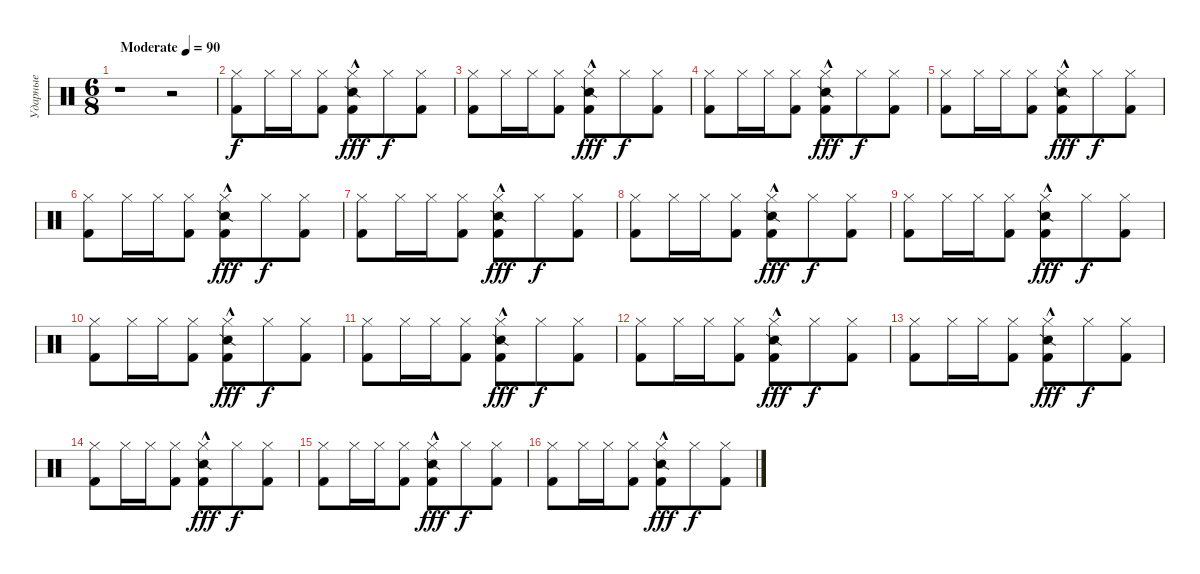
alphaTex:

\track ("Ударные" "Ударные") {instrument percussion}
\staff {score}
\articulation defaults
\ts (6 8)
\tempo (90 "Moderate")
\clef neutral
\ks aminor
r.1{dy f} r.2 |
("Hi-Hat (closed)" "Kick (hit) 2").8 "Hi-Hat (closed)".16 "Hi-Hat (closed)".16 ("Hi-Hat (closed)" "Kick (hit) 2").8 ("Hi-Hat (closed)" "Snare (side stick) 2"{hac} "Kick (hit) 2").8{dy fff} "Hi-Hat (closed)".8{dy f} ("Hi-Hat (closed)" "Kick (hit) 2").8 |
("Hi-Hat (closed)" "Kick (hit) 2").8 "Hi-Hat (closed)".16 "Hi-Hat (closed)".16 ("Hi-Hat (closed)" "Kick (hit) 2").8 ("Hi-Hat (closed)" "Snare (side stick) 2"{hac} "Kick (hit) 2").8{dy fff} "Hi-Hat (closed)".8{dy f} ("Hi-Hat (closed)" "Kick (hit) 2").8 |
("Hi-Hat (closed)" "Kick (hit) 2").8 "Hi-Hat (closed)".16 "Hi-Hat (closed)".16 ("Hi-Hat (closed)" "Kick (hit) 2").8 ("Hi-Hat (closed)" "Snare (side stick) 2"{hac} "Kick (hit) 2").8{dy fff} "Hi-Hat (closed)".8{dy f} ("Hi-Hat (closed)" "Kick (hit) 2").8 |
("Hi-Hat (closed)" "Kick (hit) 2").8 "Hi-Hat (closed)".16 "Hi-Hat (closed)".16 ("Hi-Hat (closed)" "Kick (hit) 2").8 ("Hi-Hat (closed)" "Snare (side stick) 2"{hac} "Kick (hit) 2").8{dy fff} "Hi-Hat (closed)".8{dy f} ("Hi-Hat (closed)" "Kick (hit) 2").8 |
("Hi-Hat (closed)" "Kick (hit) 2").8 "Hi-Hat (closed)".16 "Hi-Hat (closed)".16 ("Hi-Hat (closed)" "Kick (hit) 2").8 ("Hi-Hat (closed)" "Snare (side stick) 2"{hac} "Kick (hit) 2").8{dy fff} "Hi-Hat (closed)".8{dy f} ("Hi-Hat (closed)" "Kick (hit) 2").8 |
("Hi-Hat (closed)" "Kick (hit) 2").8 "Hi-Hat (closed)".16 "Hi-Hat (closed)".16 ("Hi-Hat (closed)" "Kick (hit) 2").8 ("Hi-Hat (closed)" "Snare (side stick) 2"{hac} "Kick (hit) 2").8{dy fff} "Hi-Hat (closed)".8{dy f} ("Hi-Hat (closed)" "Kick (hit) 2").8 |
("Hi-Hat (closed)" "Kick (hit) 2").8 "Hi-Hat (closed)".16 "Hi-Hat (closed)".16 ("Hi-Hat (closed)" "Kick (hit) 2").8 ("Hi-Hat (closed)" "Snare (side stick) 2"{hac} "Kick (hit) 2").8{dy fff} "Hi-Hat (closed)".8{dy f} ("Hi-Hat (closed)" "Kick (hit) 2").8 |
("Hi-Hat (closed)" "Kick (hit) 2").8 "Hi-Hat (closed)".16 "Hi-Hat (closed)".16 ("Hi-Hat (closed)" "Kick (hit) 2").8 ("Hi-Hat (closed)" "Snare (side stick) 2"{hac} "Kick (hit) 2").8{dy fff} "Hi-Hat (closed)".8{dy f} ("Hi-Hat (closed)" "Kick (hit) 2").8 |
("Hi-Hat (closed)" "Kick (hit) 2").8 "Hi-Hat (closed)".16 "Hi-Hat (closed)".16 ("Hi-Hat (closed)" "Kick (hit) 2").8 ("Hi-Hat (closed)" "Snare (side stick) 2"{hac} "Kick (hit) 2").8{dy fff} "Hi-Hat (closed)".8{dy f} ("Hi-Hat (closed)" "Kick (hit) 2").8 |
("Hi-Hat (closed)" "Kick (hit) 2").8 "Hi-Hat (closed)".16 "Hi-Hat (closed)".16 ("Hi-Hat (closed)" "Kick (hit) 2").8 ("Hi-Hat (closed)" "Snare (side stick) 2"{hac} "Kick (hit) 2").8{dy fff} "Hi-Hat (closed)".8{dy f} ("Hi-Hat (closed)" "Kick (hit) 2").8 |
("Hi-Hat (closed)" "Kick (hit) 2").8 "Hi-Hat (closed)".16 "Hi-Hat (closed)".16 ("Hi-Hat (closed)" "Kick (hit) 2").8 ("Hi-Hat (closed)" "Snare (side stick) 2"{hac} "Kick (hit) 2").8{dy fff} "Hi-Hat (closed)".8{dy f} ("Hi-Hat (closed)" "Kick (hit) 2").8 |
("Hi-Hat (closed)" "Kick (hit) 2").8 "Hi-Hat (closed)".16 "Hi-Hat (closed)".16 ("Hi-Hat (closed)" "Kick (hit) 2").8 ("Hi-Hat (closed)" "Snare (side stick) 2"{hac} "Kick (hit) 2").8{dy fff} "Hi-Hat (closed)".8{dy f} ("Hi-Hat (closed)" "Kick (hit) 2").8 |
("Hi-Hat (closed)" "Kick (hit) 2").8 "Hi-Hat (closed)".16 "Hi-Hat (closed)".16 ("Hi-Hat (closed)" "Kick (hit) 2").8 ("Hi-Hat (closed)" "Snare (side stick) 2"{hac} "Kick (hit) 2").8{dy fff} "Hi-Hat (closed)".8{dy f} ("Hi-Hat (closed)" "Kick (hit) 2").8 |
("Hi-Hat (closed)" "Kick (hit) 2").8 "Hi-Hat (closed)".16 "Hi-Hat (closed)".16 ("Hi-Hat (closed)" "Kick (hit) 2").8 ("Hi-Hat (closed)" "Snare (side stick) 2"{hac} "Kick (hit) 2").8{dy fff} "Hi-Hat (closed)".8{dy f} ("Hi-Hat (closed)" "Kick (hit) 2").8 |
("Hi-Hat (closed)" "Kick (hit) 2").8 "Hi-Hat (closed)".16 "Hi-Hat (closed)".16 ("Hi-Hat (closed)" "Kick (hit) 2").8 ("Hi-Hat (closed)" "Snare (side stick) 2"{hac} "Kick (hit) 2").8{dy fff} "Hi-Hat (closed)".8{dy f} ("Hi-Hat (closed)" "Kick (hit) 2").8
